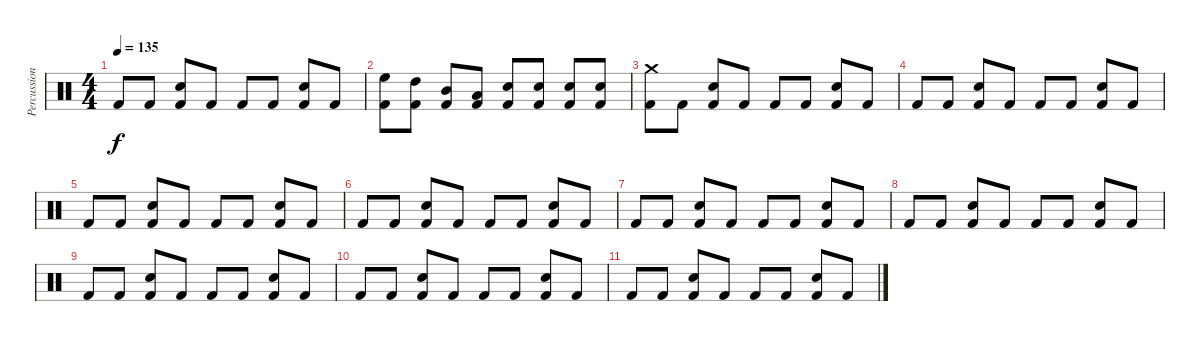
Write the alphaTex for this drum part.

\track ("Percussions" "Percussion") {instrument percussion}
\staff {score}
\articulation defaults
\ts (4 4)
\tempo 135
\clef neutral
\ks c "Kick (hit) 2".8{dy f} "Kick (hit) 2".8
("Snare (hit) 2" "Kick (hit) 2").8 "Kick (hit) 2".8 "Kick (hit) 2".8 "Kick (hit) 2".8 ("Snare (hit) 2" "Kick (hit) 2").8 "Kick (hit) 2".8 |
("High Floor Tom (hit)" "Kick (hit) 2").8 ("High Tom (hit)" "Kick (hit) 2").8 ("Mid Tom (hit)" "Kick (hit) 2").8 ("Low Tom (hit)" "Kick (hit) 2").8 ("Snare (hit) 2" "Kick (hit) 2").8 ("Snare (hit) 2" "Kick (hit) 2").8 ("Snare (hit) 2" "Kick (hit) 2").8 ("Snare (hit) 2" "Kick (hit) 2").8 |
("Crash medium (hit)" "Kick (hit) 2").8{volume 15} "Kick (hit) 2".8 ("Snare (hit) 2" "Kick (hit) 2").8 "Kick (hit) 2".8 "Kick (hit) 2".8 "Kick (hit) 2".8 ("Snare (hit) 2" "Kick (hit) 2").8 "Kick (hit) 2".8 |
"Kick (hit) 2".8{volume 14} "Kick (hit) 2".8 ("Snare (hit) 2" "Kick (hit) 2").8 "Kick (hit) 2".8 "Kick (hit) 2".8 "Kick (hit) 2".8 ("Snare (hit) 2" "Kick (hit) 2").8 "Kick (hit) 2".8 |
"Kick (hit) 2".8{volume 13} "Kick (hit) 2".8 ("Snare (hit) 2" "Kick (hit) 2").8 "Kick (hit) 2".8 "Kick (hit) 2".8 "Kick (hit) 2".8 ("Snare (hit) 2" "Kick (hit) 2").8 "Kick (hit) 2".8 |
"Kick (hit) 2".8{volume 12} "Kick (hit) 2".8 ("Snare (hit) 2" "Kick (hit) 2").8 "Kick (hit) 2".8 "Kick (hit) 2".8 "Kick (hit) 2".8 ("Snare (hit) 2" "Kick (hit) 2").8 "Kick (hit) 2".8 |
"Kick (hit) 2".8{volume 11} "Kick (hit) 2".8 ("Snare (hit) 2" "Kick (hit) 2").8 "Kick (hit) 2".8 "Kick (hit) 2".8 "Kick (hit) 2".8 ("Snare (hit) 2" "Kick (hit) 2").8 "Kick (hit) 2".8 |
"Kick (hit) 2".8{volume 10} "Kick (hit) 2".8 ("Snare (hit) 2" "Kick (hit) 2").8 "Kick (hit) 2".8 "Kick (hit) 2".8 "Kick (hit) 2".8 ("Snare (hit) 2" "Kick (hit) 2").8 "Kick (hit) 2".8 |
"Kick (hit) 2".8{volume 9} "Kick (hit) 2".8 ("Snare (hit) 2" "Kick (hit) 2").8 "Kick (hit) 2".8 "Kick (hit) 2".8{volume 8} "Kick (hit) 2".8 ("Snare (hit) 2" "Kick (hit) 2").8 "Kick (hit) 2".8 |
"Kick (hit) 2".8{volume 7} "Kick (hit) 2".8 ("Snare (hit) 2" "Kick (hit) 2").8{volume 6} "Kick (hit) 2".8 "Kick (hit) 2".8{volume 5} "Kick (hit) 2".8 ("Snare (hit) 2" "Kick (hit) 2").8{volume 4} "Kick (hit) 2".8 |
"Kick (hit) 2".8{volume 3} "Kick (hit) 2".8 ("Snare (hit) 2" "Kick (hit) 2").8{volume 2} "Kick (hit) 2".8 "Kick (hit) 2".8{volume 1} "Kick (hit) 2".8 ("Snare (hit) 2" "Kick (hit) 2").8{volume 0} "Kick (hit) 2".8
